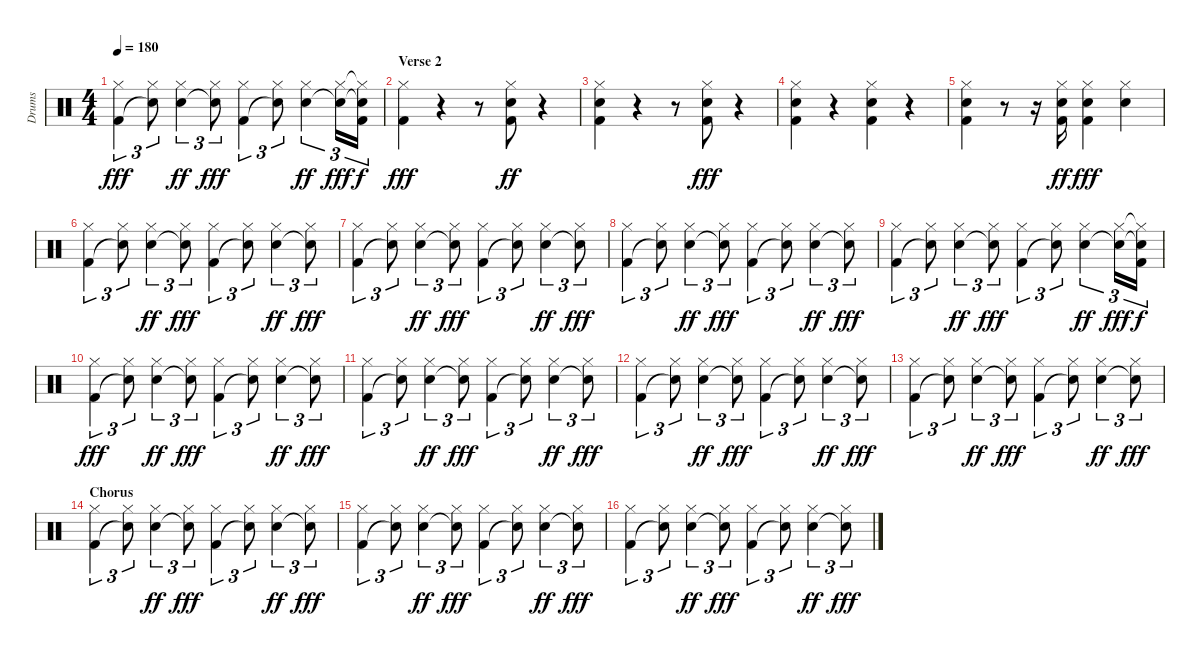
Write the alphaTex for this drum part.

\track ("Drums" "Drums") {instrument percussion}
\staff {score}
\articulation defaults
\ts (4 4)
\tempo 180
\clef neutral
\ks c
("Hi-Hat (closed)" "Kick (hit) 2").4{tu (3 2) dy fff} ("Hi-Hat (closed)" "Snare (hit)"{t}).8{tu (3 2)} ("Hi-Hat (closed)" "Electric Snare (hit)").4{tu (3 2) dy ff} ("Hi-Hat (closed)" "Snare (hit)"{t}).8{tu (3 2) dy fff} ("Hi-Hat (closed)" "Kick (hit) 2").4{tu (3 2)} ("Hi-Hat (closed)" "Snare (hit)"{t}).8{tu (3 2)} ("Hi-Hat (closed)" "Electric Snare (hit)").4{tu (3 2) dy ff} ("Hi-Hat (closed)" "Snare (hit)"{t}).16{tu (3 2) dy fff} ("Hi-Hat (closed)"{t} "Snare (hit)"{t} "Kick (hit) 2").16{tu (3 2) dy f} |
\section ("" "Verse 2")
("Hi-Hat (closed)" "Kick (hit) 2").4{dy fff} r.4 r.8 ("Hi-Hat (closed)" "Electric Snare (hit)" "Kick (hit) 2").8{dy ff} r.4 |
("Hi-Hat (closed)" "Electric Snare (hit)" "Kick (hit) 2").4 r.4 r.8 ("Hi-Hat (closed)" "Electric Snare (hit)" "Kick (hit) 2").8{dy fff} r.4 |
("Hi-Hat (closed)" "Electric Snare (hit)" "Kick (hit) 2").4 r.4 ("Hi-Hat (closed)" "Electric Snare (hit)" "Kick (hit) 2").4 r.4 |
("Hi-Hat (closed)" "Electric Snare (hit)" "Kick (hit) 2").4 r.8 r.16 ("Hi-Hat (closed)" "Electric Snare (hit)" "Kick (hit) 2").16{dy ff} ("Hi-Hat (closed)" "Electric Snare (hit)" "Kick (hit) 2").4{dy fff} ("Hi-Hat (closed)" "Electric Snare (hit)").4 |
("Hi-Hat (closed)" "Kick (hit) 2").4{tu (3 2)} ("Hi-Hat (closed)" "Snare (hit)"{t}).8{tu (3 2)} ("Hi-Hat (closed)" "Electric Snare (hit)").4{tu (3 2) dy ff} ("Hi-Hat (closed)" "Snare (hit)"{t}).8{tu (3 2) dy fff} ("Hi-Hat (closed)" "Kick (hit) 2").4{tu (3 2)} ("Hi-Hat (closed)" "Snare (hit)"{t}).8{tu (3 2)} ("Hi-Hat (closed)" "Electric Snare (hit)").4{tu (3 2) dy ff} ("Hi-Hat (closed)" "Snare (hit)"{t}).8{tu (3 2) dy fff} |
("Hi-Hat (closed)" "Kick (hit) 2").4{tu (3 2)} ("Hi-Hat (closed)" "Snare (hit)"{t}).8{tu (3 2)} ("Hi-Hat (closed)" "Electric Snare (hit)").4{tu (3 2) dy ff} ("Hi-Hat (closed)" "Snare (hit)"{t}).8{tu (3 2) dy fff} ("Hi-Hat (closed)" "Kick (hit) 2").4{tu (3 2)} ("Hi-Hat (closed)" "Snare (hit)"{t}).8{tu (3 2)} ("Hi-Hat (closed)" "Electric Snare (hit)").4{tu (3 2) dy ff} ("Hi-Hat (closed)" "Snare (hit)"{t}).8{tu (3 2) dy fff} |
("Hi-Hat (closed)" "Kick (hit) 2").4{tu (3 2)} ("Hi-Hat (closed)" "Snare (hit)"{t}).8{tu (3 2)} ("Hi-Hat (closed)" "Electric Snare (hit)").4{tu (3 2) dy ff} ("Hi-Hat (closed)" "Snare (hit)"{t}).8{tu (3 2) dy fff} ("Hi-Hat (closed)" "Kick (hit) 2").4{tu (3 2)} ("Hi-Hat (closed)" "Snare (hit)"{t}).8{tu (3 2)} ("Hi-Hat (closed)" "Electric Snare (hit)").4{tu (3 2) dy ff} ("Hi-Hat (closed)" "Snare (hit)"{t}).8{tu (3 2) dy fff} |
("Hi-Hat (closed)" "Kick (hit) 2").4{tu (3 2)} ("Hi-Hat (closed)" "Snare (hit)"{t}).8{tu (3 2)} ("Hi-Hat (closed)" "Electric Snare (hit)").4{tu (3 2) dy ff} ("Hi-Hat (closed)" "Snare (hit)"{t}).8{tu (3 2) dy fff} ("Hi-Hat (closed)" "Kick (hit) 2").4{tu (3 2)} ("Hi-Hat (closed)" "Snare (hit)"{t}).8{tu (3 2)} ("Hi-Hat (closed)" "Electric Snare (hit)").4{tu (3 2) dy ff} ("Hi-Hat (closed)" "Snare (hit)"{t}).16{tu (3 2) dy fff} ("Hi-Hat (closed)"{t} "Snare (hit)"{t} "Kick (hit) 2").16{tu (3 2) dy f} |
("Hi-Hat (closed)" "Kick (hit) 2").4{tu (3 2) dy fff} ("Hi-Hat (closed)" "Snare (hit)"{t}).8{tu (3 2)} ("Hi-Hat (closed)" "Electric Snare (hit)").4{tu (3 2) dy ff} ("Hi-Hat (closed)" "Snare (hit)"{t}).8{tu (3 2) dy fff} ("Hi-Hat (closed)" "Kick (hit) 2").4{tu (3 2)} ("Hi-Hat (closed)" "Snare (hit)"{t}).8{tu (3 2)} ("Hi-Hat (closed)" "Electric Snare (hit)").4{tu (3 2) dy ff} ("Hi-Hat (closed)" "Snare (hit)"{t}).8{tu (3 2) dy fff} |
("Hi-Hat (closed)" "Kick (hit) 2").4{tu (3 2)} ("Hi-Hat (closed)" "Snare (hit)"{t}).8{tu (3 2)} ("Hi-Hat (closed)" "Electric Snare (hit)").4{tu (3 2) dy ff} ("Hi-Hat (closed)" "Snare (hit)"{t}).8{tu (3 2) dy fff} ("Hi-Hat (closed)" "Kick (hit) 2").4{tu (3 2)} ("Hi-Hat (closed)" "Snare (hit)"{t}).8{tu (3 2)} ("Hi-Hat (closed)" "Electric Snare (hit)").4{tu (3 2) dy ff} ("Hi-Hat (closed)" "Snare (hit)"{t}).8{tu (3 2) dy fff} |
("Hi-Hat (closed)" "Kick (hit) 2").4{tu (3 2)} ("Hi-Hat (closed)" "Snare (hit)"{t}).8{tu (3 2)} ("Hi-Hat (closed)" "Electric Snare (hit)").4{tu (3 2) dy ff} ("Hi-Hat (closed)" "Snare (hit)"{t}).8{tu (3 2) dy fff} ("Hi-Hat (closed)" "Kick (hit) 2").4{tu (3 2)} ("Hi-Hat (closed)" "Snare (hit)"{t}).8{tu (3 2)} ("Hi-Hat (closed)" "Electric Snare (hit)").4{tu (3 2) dy ff} ("Hi-Hat (closed)" "Snare (hit)"{t}).8{tu (3 2) dy fff} |
("Hi-Hat (closed)" "Kick (hit) 2").4{tu (3 2)} ("Hi-Hat (closed)" "Snare (hit)"{t}).8{tu (3 2)} ("Hi-Hat (closed)" "Electric Snare (hit)").4{tu (3 2) dy ff} ("Hi-Hat (closed)" "Snare (hit)"{t}).8{tu (3 2) dy fff} ("Hi-Hat (closed)" "Kick (hit) 2").4{tu (3 2)} ("Hi-Hat (closed)" "Snare (hit)"{t}).8{tu (3 2)} ("Hi-Hat (closed)" "Electric Snare (hit)").4{tu (3 2) dy ff} ("Hi-Hat (closed)" "Snare (hit)"{t}).8{tu (3 2) dy fff} |
\section ("" "Chorus")
("Hi-Hat (closed)" "Kick (hit) 2").4{tu (3 2)} ("Hi-Hat (closed)" "Snare (hit)"{t}).8{tu (3 2)} ("Hi-Hat (closed)" "Electric Snare (hit)").4{tu (3 2) dy ff} ("Hi-Hat (closed)" "Snare (hit)"{t}).8{tu (3 2) dy fff} ("Hi-Hat (closed)" "Kick (hit) 2").4{tu (3 2)} ("Hi-Hat (closed)" "Snare (hit)"{t}).8{tu (3 2)} ("Hi-Hat (closed)" "Electric Snare (hit)").4{tu (3 2) dy ff} ("Hi-Hat (closed)" "Snare (hit)"{t}).8{tu (3 2) dy fff} |
("Hi-Hat (closed)" "Kick (hit) 2").4{tu (3 2)} ("Hi-Hat (closed)" "Snare (hit)"{t}).8{tu (3 2)} ("Hi-Hat (closed)" "Electric Snare (hit)").4{tu (3 2) dy ff} ("Hi-Hat (closed)" "Snare (hit)"{t}).8{tu (3 2) dy fff} ("Hi-Hat (closed)" "Kick (hit) 2").4{tu (3 2)} ("Hi-Hat (closed)" "Snare (hit)"{t}).8{tu (3 2)} ("Hi-Hat (closed)" "Electric Snare (hit)").4{tu (3 2) dy ff} ("Hi-Hat (closed)" "Snare (hit)"{t}).8{tu (3 2) dy fff} |
("Hi-Hat (closed)" "Kick (hit) 2").4{tu (3 2)} ("Hi-Hat (closed)" "Snare (hit)"{t}).8{tu (3 2)} ("Hi-Hat (closed)" "Electric Snare (hit)").4{tu (3 2) dy ff} ("Hi-Hat (closed)" "Snare (hit)"{t}).8{tu (3 2) dy fff} ("Hi-Hat (closed)" "Kick (hit) 2").4{tu (3 2)} ("Hi-Hat (closed)" "Snare (hit)"{t}).8{tu (3 2)} ("Hi-Hat (closed)" "Electric Snare (hit)").4{tu (3 2) dy ff} ("Hi-Hat (closed)" "Snare (hit)"{t}).8{tu (3 2) dy fff}
